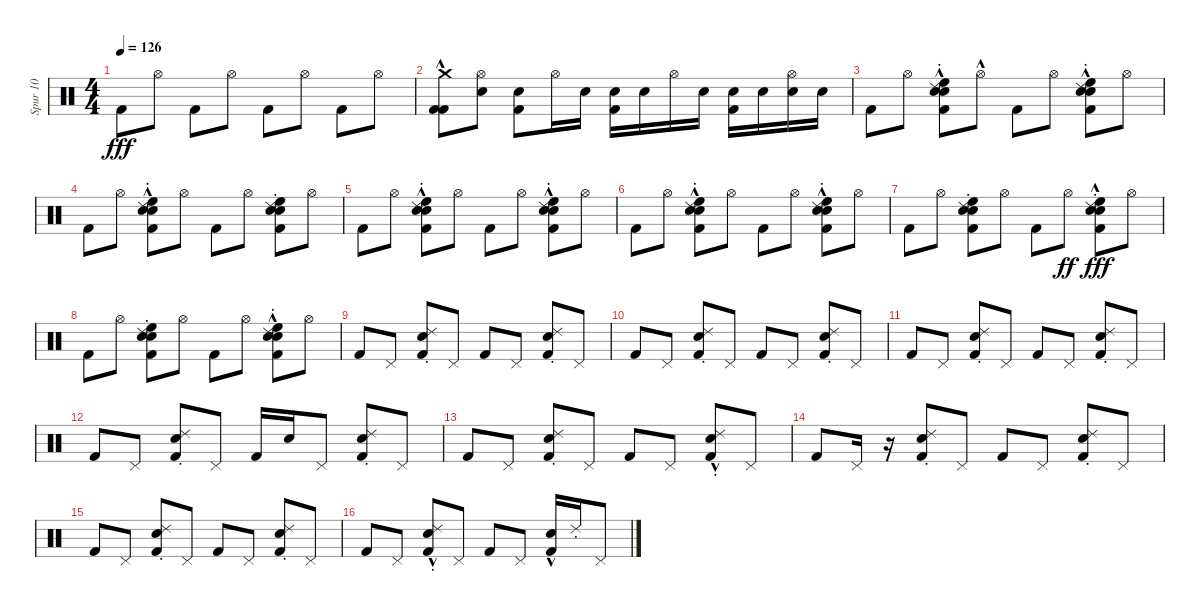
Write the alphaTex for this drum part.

\track ("Spur 10" "Spur 10") {instrument percussion}
\staff {score}
\articulation defaults
\ts (4 4)
\tempo 126
\clef neutral
\ks c "Kick (hit) 2".8{dy fff} "Hi-Hat (open)".8 "Kick (hit) 2".8 "Hi-Hat (open)".8 "Kick (hit) 2".8 "Hi-Hat (open)".8 "Kick (hit) 2".8 "Hi-Hat (open)".8
|
("Crash medium (hit)"{hac} "Kick (hit) 2" "Kick (hit) 2").8 ("Snare (hit) 2" "Hi-Hat (open)").8 ("Kick (hit) 2" "Snare (hit) 2").8 "Hi-Hat (open)".16 "Snare (hit) 2".16 ("Snare (hit) 2" "Kick (hit) 2").16 "Snare (hit) 2".16 "Hi-Hat (open)".16 "Snare (hit) 2".16 ("Snare (hit) 2" "Kick (hit) 2").16 "Snare (hit) 2".16 ("Snare (hit) 2" "Hi-Hat (open)").16 "Snare (hit) 2".16 |
"Kick (hit) 2".8 "Hi-Hat (open)".8 ("Ride (choke) 2"{hac} "Kick (hit) 2" "High Floor Tom (hit)"{hac} "Electric Snare (hit)" "Snare (hit) 2").8 "Hi-Hat (open)"{hac}.8 "Kick (hit) 2".8 "Hi-Hat (open)".8 ("High Floor Tom (hit)"{hac} "Ride (choke) 2" "Electric Snare (hit)" "Kick (hit) 2" "Snare (hit) 2").8 "Hi-Hat (open)".8 |
"Kick (hit) 2".8 "Hi-Hat (open)".8 ("High Floor Tom (hit)"{hac} "Electric Snare (hit)" "Ride (choke) 2"{hac} "Kick (hit) 2" "Snare (hit) 2").8 "Hi-Hat (open)".8 "Kick (hit) 2".8 "Hi-Hat (open)".8 ("Ride (choke) 2" "Electric Snare (hit)" "High Floor Tom (hit)" "Snare (hit) 2" "Kick (hit) 2").8 "Hi-Hat (open)".8 |
"Kick (hit) 2".8 "Hi-Hat (open)".8 ("Electric Snare (hit)" "Kick (hit) 2" "Ride (choke) 2"{hac} "High Floor Tom (hit)"{hac} "Snare (hit) 2").8 "Hi-Hat (open)".8 "Kick (hit) 2".8 "Hi-Hat (open)".8 ("Ride (choke) 2"{hac} "Kick (hit) 2" "Electric Snare (hit)" "High Floor Tom (hit)"{hac} "Snare (hit) 2").8 "Hi-Hat (open)".8 |
"Kick (hit) 2".8 "Hi-Hat (open)".8 ("Ride (choke) 2"{hac} "Kick (hit) 2" "Electric Snare (hit)" "High Floor Tom (hit)"{hac} "Snare (hit) 2").8 "Hi-Hat (open)".8 "Kick (hit) 2".8 "Hi-Hat (open)".8 ("Kick (hit) 2" "Electric Snare (hit)" "High Floor Tom (hit)"{hac} "Ride (choke) 2"{hac} "Snare (hit) 2").8 "Hi-Hat (open)".8 |
"Kick (hit) 2".8 "Hi-Hat (open)".8 ("Electric Snare (hit)" "High Floor Tom (hit)" "Ride (choke) 2" "Kick (hit) 2" "Snare (hit) 2").8 "Hi-Hat (open)".8 "Kick (hit) 2".8 "Hi-Hat (open)".8{dy ff} ("Electric Snare (hit)" "Ride (choke) 2" "Kick (hit) 2" "High Floor Tom (hit)"{hac} "Snare (hit) 2").8{dy fff} "Hi-Hat (open)".8 |
"Kick (hit) 2".8 "Hi-Hat (open)".8 ("Kick (hit) 2" "Ride (choke) 2" "High Floor Tom (hit)" "Electric Snare (hit)" "Snare (hit) 2").8 "Hi-Hat (open)".8 "Kick (hit) 2".8 "Hi-Hat (open)".8 ("High Floor Tom (hit)"{hac} "Electric Snare (hit)" "Ride (choke) 2"{hac} "Kick (hit) 2" "Snare (hit) 2").8 "Hi-Hat (open)".8 |
"Kick (hit) 2".8 "Pedal Hi-Hat (hit)".8 ("Kick (hit) 2" "Ride (choke) 2" "Snare (hit) 2").8 "Pedal Hi-Hat (hit)".8 "Kick (hit) 2".8 "Pedal Hi-Hat (hit)".8 ("Kick (hit) 2" "Snare (hit) 2" "Ride (choke) 2").8 "Pedal Hi-Hat (hit)".8 |
"Kick (hit) 2".8 "Pedal Hi-Hat (hit)".8 ("Kick (hit) 2" "Ride (choke) 2" "Snare (hit) 2").8 "Pedal Hi-Hat (hit)".8 "Kick (hit) 2".8 "Pedal Hi-Hat (hit)".8 ("Kick (hit) 2" "Ride (choke) 2" "Snare (hit) 2").8 "Pedal Hi-Hat (hit)".8 |
"Kick (hit) 2".8 "Pedal Hi-Hat (hit)".8 ("Snare (hit) 2" "Kick (hit) 2" "Ride (choke) 2").8 "Pedal Hi-Hat (hit)".8 "Kick (hit) 2".8 "Pedal Hi-Hat (hit)".8 ("Snare (hit) 2" "Kick (hit) 2" "Ride (choke) 2").8 "Pedal Hi-Hat (hit)".8 |
"Kick (hit) 2".8 "Pedal Hi-Hat (hit)".8 ("Ride (choke) 2" "Snare (hit) 2" "Kick (hit) 2").8 "Pedal Hi-Hat (hit)".8 "Kick (hit) 2".16 "Snare (hit) 2".16 "Pedal Hi-Hat (hit)".8 ("Snare (hit) 2" "Ride (choke) 2" "Kick (hit) 2").8 "Pedal Hi-Hat (hit)".8 |
"Kick (hit) 2".8 "Pedal Hi-Hat (hit)".8 ("Ride (choke) 2" "Kick (hit) 2" "Snare (hit) 2").8 "Pedal Hi-Hat (hit)".8 "Kick (hit) 2".8 "Pedal Hi-Hat (hit)".8 ("Ride (choke) 2"{hac} "Kick (hit) 2" "Snare (hit) 2").8 "Pedal Hi-Hat (hit)".8 |
"Kick (hit) 2".8 "Pedal Hi-Hat (hit)".16 r.16 ("Ride (choke) 2" "Kick (hit) 2" "Snare (hit) 2").8 "Pedal Hi-Hat (hit)".8 "Kick (hit) 2".8 "Pedal Hi-Hat (hit)".8 ("Snare (hit) 2" "Ride (choke) 2" "Kick (hit) 2").8 "Pedal Hi-Hat (hit)".8 |
"Kick (hit) 2".8 "Pedal Hi-Hat (hit)".8 ("Kick (hit) 2" "Ride (choke) 2" "Snare (hit) 2").8 "Pedal Hi-Hat (hit)".8 "Kick (hit) 2".8 "Pedal Hi-Hat (hit)".8 ("Snare (hit) 2" "Ride (choke) 2" "Kick (hit) 2").8 "Pedal Hi-Hat (hit)".8 |
"Kick (hit) 2".8 "Pedal Hi-Hat (hit)".8 ("Kick (hit) 2" "Ride (choke) 2"{hac} "Snare (hit) 2").8 "Pedal Hi-Hat (hit)".8 "Kick (hit) 2".8 "Pedal Hi-Hat (hit)".8 ("Snare (hit) 2" "Kick (hit) 2"{hac}).16 "Ride (choke) 2".16 "Pedal Hi-Hat (hit)".8
